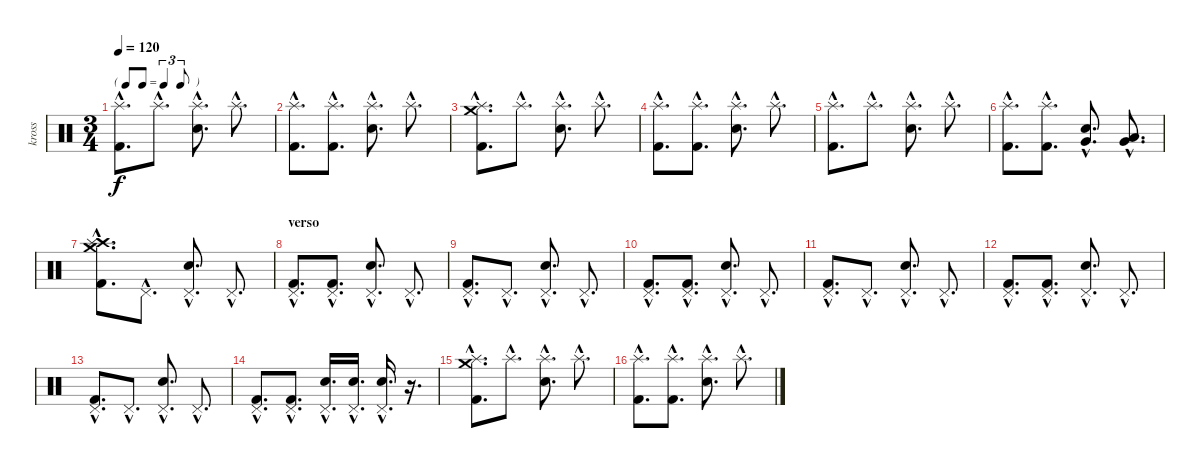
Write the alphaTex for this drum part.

\track ("kross" "kross") {instrument percussion}
\staff {score}
\articulation defaults
\ts (3 4)
\tf triplet8th
\tempo 120
\clef neutral
\ks c
("Splash (hit)"{hac} "Kick (hit) 2"{hac}).8{d dy f} "Splash (hit)"{hac}.8{d} ("Electric Snare (hit)"{hac} "Splash (hit)"{hac}).8{d} "Splash (hit)"{hac}.8{d} |
("Splash (hit)"{hac} "Kick (hit) 2"{hac}).8{d} ("Splash (hit)"{hac} "Kick (hit) 2"{hac}).8{d} ("Electric Snare (hit)"{hac} "Splash (hit)"{hac}).8{d} "Splash (hit)"{hac}.8{d} |
("Splash (hit)"{hac} "Crash medium (hit)"{hac} "Kick (hit) 2"{hac}).8{d} "Splash (hit)"{hac}.8{d} ("Electric Snare (hit)"{hac} "Splash (hit)"{hac}).8{d} "Splash (hit)"{hac}.8{d} |
("Splash (hit)"{hac} "Kick (hit) 2"{hac}).8{d} ("Splash (hit)"{hac} "Kick (hit) 2"{hac}).8{d} ("Electric Snare (hit)"{hac} "Splash (hit)"{hac}).8{d} "Splash (hit)"{hac}.8{d} |
("Splash (hit)"{hac} "Kick (hit) 2"{hac}).8{d} "Splash (hit)"{hac}.8{d} ("Electric Snare (hit)"{hac} "Splash (hit)"{hac}).8{d} "Splash (hit)"{hac}.8{d} |
("Splash (hit)"{hac} "Kick (hit) 2"{hac}).8{d} ("Splash (hit)"{hac} "Kick (hit) 2"{hac}).8{d} ("Electric Snare (hit)"{hac} "Very Low Tom (hit)"{hac}).8{d} ("Very Low Tom (hit)"{hac} "Low Floor Tom (hit)"{hac}).8{d} |
("Crash high (hit)"{hac} "Splash (hit)"{hac} "Crash medium (hit)"{hac} "Kick (hit) 2"{hac}).8{d} "Pedal Hi-Hat (hit)"{hac}.8{d} ("Electric Snare (hit)"{hac} "Pedal Hi-Hat (hit)"{hac}).8{d} "Pedal Hi-Hat (hit)"{hac}.8{d} |
\section ("" "verso")
("Pedal Hi-Hat (hit)"{hac} "Kick (hit) 2"{hac}).8{d} ("Pedal Hi-Hat (hit)"{hac} "Kick (hit) 2"{hac}).8{d} ("Electric Snare (hit)"{hac} "Pedal Hi-Hat (hit)"{hac}).8{d} "Pedal Hi-Hat (hit)"{hac}.8{d} |
("Pedal Hi-Hat (hit)"{hac} "Kick (hit) 2"{hac}).8{d} "Pedal Hi-Hat (hit)"{hac}.8{d} ("Electric Snare (hit)"{hac} "Pedal Hi-Hat (hit)"{hac}).8{d} "Pedal Hi-Hat (hit)"{hac}.8{d} |
("Pedal Hi-Hat (hit)"{hac} "Kick (hit) 2"{hac}).8{d} ("Pedal Hi-Hat (hit)"{hac} "Kick (hit) 2"{hac}).8{d} ("Electric Snare (hit)"{hac} "Pedal Hi-Hat (hit)"{hac}).8{d} "Pedal Hi-Hat (hit)"{hac}.8{d} |
("Pedal Hi-Hat (hit)"{hac} "Kick (hit) 2"{hac}).8{d} "Pedal Hi-Hat (hit)"{hac}.8{d} ("Electric Snare (hit)"{hac} "Pedal Hi-Hat (hit)"{hac}).8{d} "Pedal Hi-Hat (hit)"{hac}.8{d} |
("Pedal Hi-Hat (hit)"{hac} "Kick (hit) 2"{hac}).8{d} ("Pedal Hi-Hat (hit)"{hac} "Kick (hit) 2"{hac}).8{d} ("Electric Snare (hit)"{hac} "Pedal Hi-Hat (hit)"{hac}).8{d} "Pedal Hi-Hat (hit)"{hac}.8{d} |
("Pedal Hi-Hat (hit)"{hac} "Kick (hit) 2"{hac}).8{d} "Pedal Hi-Hat (hit)"{hac}.8{d} ("Electric Snare (hit)"{hac} "Pedal Hi-Hat (hit)"{hac}).8{d} "Pedal Hi-Hat (hit)"{hac}.8{d} |
("Pedal Hi-Hat (hit)"{hac} "Kick (hit) 2"{hac}).8{d} ("Pedal Hi-Hat (hit)"{hac} "Kick (hit) 2"{hac}).8{d} ("Electric Snare (hit)"{hac} "Pedal Hi-Hat (hit)"{hac}).16{d} ("Electric Snare (hit)"{hac} "Pedal Hi-Hat (hit)"{hac}).16{d} ("Electric Snare (hit)"{hac} "Pedal Hi-Hat (hit)"{hac}).16{d} r.16{d} |
("Splash (hit)"{hac} "Crash medium (hit)"{hac} "Kick (hit) 2"{hac}).8{d} "Splash (hit)"{hac}.8{d} ("Electric Snare (hit)"{hac} "Splash (hit)"{hac}).8{d} "Splash (hit)"{hac}.8{d} |
("Splash (hit)"{hac} "Kick (hit) 2"{hac}).8{d} ("Splash (hit)"{hac} "Kick (hit) 2"{hac}).8{d} ("Electric Snare (hit)"{hac} "Splash (hit)"{hac}).8{d} "Splash (hit)"{hac}.8{d}
